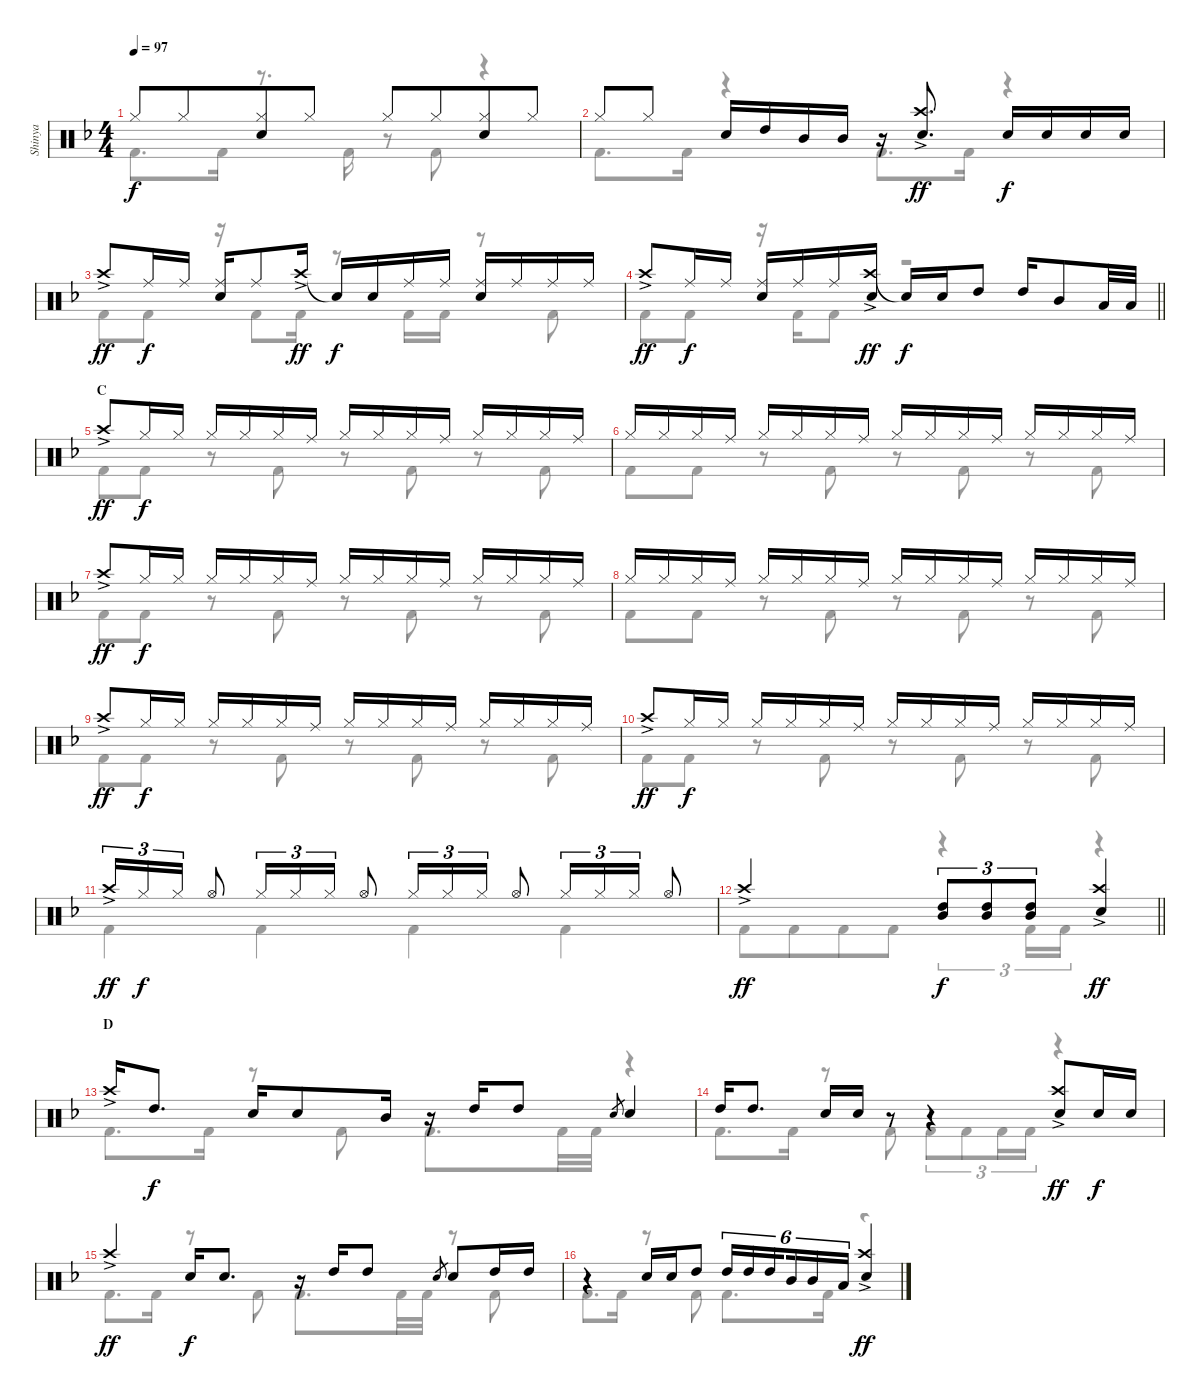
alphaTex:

\track ("Shinya" "Shinya") {mute instrument percussion}
\staff {score}
\articulation defaults
\voice
\ts (4 4)
\tempo 97
\clef neutral
\ks dminor "Hi-Hat (closed)".8{dy f} "Hi-Hat (closed)".8{beam merge}
("Hi-Hat (closed)" "Snare (hit) 2").8 "Hi-Hat (closed)".8 "Hi-Hat (closed)".8 "Hi-Hat (closed)".8{beam merge} ("Hi-Hat (closed)" "Snare (hit) 2").8 "Hi-Hat (closed)".8 |
"Hi-Hat (closed)".8 "Hi-Hat (closed)".8 "Snare (hit) 2".16 "High Tom (hit)".16 "Mid Tom (hit)".16 "Mid Tom (hit)".16 r.16 ("Crash high (hit)"{ac} "Snare (hit) 2").8{d dy ff} "Snare (hit) 2".16{dy f} "Snare (hit) 2".16 "Snare (hit) 2".16 "Snare (hit) 2".16 |
"Crash high (hit)"{ac}.8{dy ff} "Ride (middle)".16{dy f} "Ride (middle)".16 ("Ride (middle)" "Snare (hit) 2").16 "Ride (middle)".8 "Crash high (hit)"{ac}.16{dy ff} "Snare (hit)"{t}.16{dy f} "Snare (hit) 2".16 "Ride (middle)".16 "Ride (middle)".16 ("Ride (middle)" "Snare (hit) 2").16 "Ride (middle)".16 "Ride (middle)".16 "Ride (middle)".16 |
\barLineRight lightlight "Crash high (hit)"{ac}.8{dy ff} "Ride (middle)".16{dy f} "Ride (middle)".16
("Ride (middle)" "Snare (hit) 2").16 "Ride (middle)".16 "Ride (middle)".16 ("Crash high (hit)"{ac} "Snare (hit) 2").16{dy ff} "Snare (hit)"{t}.16{dy f} "Snare (hit) 2".16 "High Tom (hit)".8 "High Tom (hit)".16 "Mid Tom (hit)".8 "Low Tom (hit)".32 "Low Tom (hit)".32 |
\section ("" "C")
"Crash high (hit)"{ac}.8{dy ff} "Hi-Hat (closed)".16{dy f} "Hi-Hat (closed)".16 "Hi-Hat (closed)".16 "Hi-Hat (closed)".16 "Hi-Hat (closed)".16 "Ride (middle)".16 "Hi-Hat (closed)".16 "Hi-Hat (closed)".16 "Hi-Hat (closed)".16 "Ride (middle)".16 "Hi-Hat (closed)".16 "Hi-Hat (closed)".16 "Hi-Hat (closed)".16 "Ride (middle)".16 |
"Hi-Hat (closed)".16 "Hi-Hat (closed)".16 "Hi-Hat (closed)".16 "Ride (middle)".16 "Hi-Hat (closed)".16 "Hi-Hat (closed)".16 "Hi-Hat (closed)".16 "Ride (middle)".16 "Hi-Hat (closed)".16 "Hi-Hat (closed)".16 "Hi-Hat (closed)".16 "Ride (middle)".16 "Hi-Hat (closed)".16 "Hi-Hat (closed)".16 "Hi-Hat (closed)".16 "Ride (middle)".16 |
"Crash high (hit)"{ac}.8{dy ff} "Hi-Hat (closed)".16{dy f} "Hi-Hat (closed)".16 "Hi-Hat (closed)".16 "Hi-Hat (closed)".16 "Hi-Hat (closed)".16 "Ride (middle)".16 "Hi-Hat (closed)".16 "Hi-Hat (closed)".16 "Hi-Hat (closed)".16 "Ride (middle)".16 "Hi-Hat (closed)".16 "Hi-Hat (closed)".16 "Hi-Hat (closed)".16 "Ride (middle)".16 |
"Hi-Hat (closed)".16 "Hi-Hat (closed)".16 "Hi-Hat (closed)".16 "Ride (middle)".16 "Hi-Hat (closed)".16 "Hi-Hat (closed)".16 "Hi-Hat (closed)".16 "Ride (middle)".16 "Hi-Hat (closed)".16 "Hi-Hat (closed)".16 "Hi-Hat (closed)".16 "Ride (middle)".16 "Hi-Hat (closed)".16 "Hi-Hat (closed)".16 "Hi-Hat (closed)".16 "Ride (middle)".16 |
"Crash high (hit)"{ac}.8{dy ff} "Hi-Hat (closed)".16{dy f} "Hi-Hat (closed)".16 "Hi-Hat (closed)".16 "Hi-Hat (closed)".16 "Hi-Hat (closed)".16 "Ride (middle)".16 "Hi-Hat (closed)".16 "Hi-Hat (closed)".16 "Hi-Hat (closed)".16 "Ride (middle)".16 "Hi-Hat (closed)".16 "Hi-Hat (closed)".16 "Hi-Hat (closed)".16 "Ride (middle)".16 |
"Crash high (hit)"{ac}.8{dy ff} "Hi-Hat (closed)".16{dy f} "Hi-Hat (closed)".16 "Hi-Hat (closed)".16 "Hi-Hat (closed)".16 "Hi-Hat (closed)".16 "Ride (middle)".16 "Hi-Hat (closed)".16 "Hi-Hat (closed)".16 "Hi-Hat (closed)".16 "Ride (middle)".16 "Hi-Hat (closed)".16 "Hi-Hat (closed)".16 "Hi-Hat (closed)".16 "Ride (middle)".16 |
"Crash high (hit)"{ac}.16{tu (3 2) dy ff} "Hi-Hat (closed)".16{tu (3 2) dy f} "Hi-Hat (closed)".16{tu (3 2)} "Hi-Hat (open)".8 "Hi-Hat (closed)".16{tu (3 2)} "Hi-Hat (closed)".16{tu (3 2)} "Hi-Hat (closed)".16{tu (3 2)} "Hi-Hat (open)".8 "Hi-Hat (closed)".16{tu (3 2)} "Hi-Hat (closed)".16{tu (3 2)} "Hi-Hat (closed)".16{tu (3 2)} "Hi-Hat (open)".8 "Hi-Hat (closed)".16{tu (3 2)} "Hi-Hat (closed)".16{tu (3 2)} "Hi-Hat (closed)".16{tu (3 2)} "Hi-Hat (open)".8 |
\barLineRight lightlight "Crash high (hit)"{ac}.2{dy ff}
("High Tom (hit)" "Mid Tom (hit)").8{tu (3 2) dy f} ("High Tom (hit)" "Mid Tom (hit)").8{tu (3 2)} ("High Tom (hit)" "Mid Tom (hit)").8{tu (3 2)} ("Crash high (hit)"{ac} "Snare (hit) 2").4{dy ff} |
\section ("" "D")
"Crash high (hit)"{ac}.16 "High Tom (hit)".8{d dy f} "Snare (hit) 2".16 "Snare (hit) 2".8 "Mid Tom (hit)".16 r.16 "High Tom (hit)".16 "High Tom (hit)".8 "Snare (hit) 2".8{gr} "Snare (hit) 2".4 |
"High Tom (hit)".16 "High Tom (hit)".8{d} "Snare (hit) 2".16 "Snare (hit) 2".16 r.8 r.4 ("Crash high (hit)"{ac} "Snare (hit) 2").8{dy ff} "Snare (hit) 2".16{dy f} "Snare (hit) 2".16 |
"Crash high (hit)"{ac}.4{dy ff} "Snare (hit) 2".16{dy f} "Snare (hit) 2".8{d} r.16 "High Tom (hit)".16 "High Tom (hit)".8 "Snare (hit) 2".8{gr} "Snare (hit) 2".8 "High Tom (hit)".16 "High Tom (hit)".16 |
r.4 "Snare (hit) 2".16 "Snare (hit) 2".16 "High Tom (hit)".8 "High Tom (hit)".16{tu (6 4)} "High Tom (hit)".16{tu (6 4)} "High Tom (hit)".16{tu (6 4) beam splitsecondary} "Mid Tom (hit)".16{tu (6 4)} "Mid Tom (hit)".16{tu (6 4)} "Low Tom (hit)".16{tu (6 4)} ("Crash high (hit)"{ac} "Snare (hit) 2").4{dy ff}
\voice
\clef neutral
\ottava regular
\simile none
\ks dminor "Kick (hit) 2".8{d dy f} "Kick (hit) 2".16
r.8{d} "Kick (hit) 2".16 r.8 "Kick (hit) 2".8 r.4 |
"Kick (hit) 2".8{d} "Kick (hit) 2".16 r.4 "Kick (hit) 2".8{d} "Kick (hit) 2".16 r.4 |
"Kick (hit) 2".8 "Kick (hit) 2".8 r.16 "Kick (hit) 2".8 "Kick (hit) 2".16 r.8 "Kick (hit) 2".16 "Kick (hit) 2".16 r.8 "Kick (hit) 2".8 |
\barLineRight lightlight "Kick (hit) 2".8 "Kick (hit) 2".8
r.16 "Kick (hit) 2".16 "Kick (hit) 2".8 r.2 |
"Kick (hit) 2".8 "Kick (hit) 2".8 r.8 "Kick (hit) 2".8 r.8 "Kick (hit) 2".8 r.8 "Kick (hit) 2".8 |
"Kick (hit) 2".8 "Kick (hit) 2".8 r.8 "Kick (hit) 2".8 r.8 "Kick (hit) 2".8 r.8 "Kick (hit) 2".8 |
"Kick (hit) 2".8 "Kick (hit) 2".8 r.8 "Kick (hit) 2".8 r.8 "Kick (hit) 2".8 r.8 "Kick (hit) 2".8 |
"Kick (hit) 2".8 "Kick (hit) 2".8 r.8 "Kick (hit) 2".8 r.8 "Kick (hit) 2".8 r.8 "Kick (hit) 2".8 |
"Kick (hit) 2".8 "Kick (hit) 2".8 r.8 "Kick (hit) 2".8 r.8 "Kick (hit) 2".8 r.8 "Kick (hit) 2".8 |
"Kick (hit) 2".8 "Kick (hit) 2".8 r.8 "Kick (hit) 2".8 r.8 "Kick (hit) 2".8 r.8 "Kick (hit) 2".8 |
"Kick (hit) 2".4 "Kick (hit) 2".4 "Kick (hit) 2".4 "Kick (hit) 2".4 |
\barLineRight lightlight "Kick (hit) 2".8 "Kick (hit) 2".8{beam merge} "Kick (hit) 2".8 "Kick (hit) 2".8
r.4{tu (3 2)} "Kick (hit) 2".16{tu (3 2)} "Kick (hit) 2".16{tu (3 2)} r.4 |
"Kick (hit) 2".8{d} "Kick (hit) 2".16 r.8 "Kick (hit) 2".8 "Kick (hit) 2".8{d} "Kick (hit) 2".32 "Kick (hit) 2".32 r.4 |
"Kick (hit) 2".8{d} "Kick (hit) 2".16 r.8 "Kick (hit) 2".8 "Kick (hit) 2".8{tu (3 2) beam merge} "Kick (hit) 2".8{tu (3 2)} "Kick (hit) 2".16{tu (3 2) beam merge} "Kick (hit) 2".16{tu (3 2)} r.4 |
"Kick (hit) 2".8{d} "Kick (hit) 2".16 r.8 "Kick (hit) 2".8 "Kick (hit) 2".8{d} "Kick (hit) 2".32 "Kick (hit) 2".32 r.8 "Kick (hit) 2".8 |
"Kick (hit) 2".8{d} "Kick (hit) 2".16 r.8 "Kick (hit) 2".8 "Kick (hit) 2".8{d} "Kick (hit) 2".16 r.4
